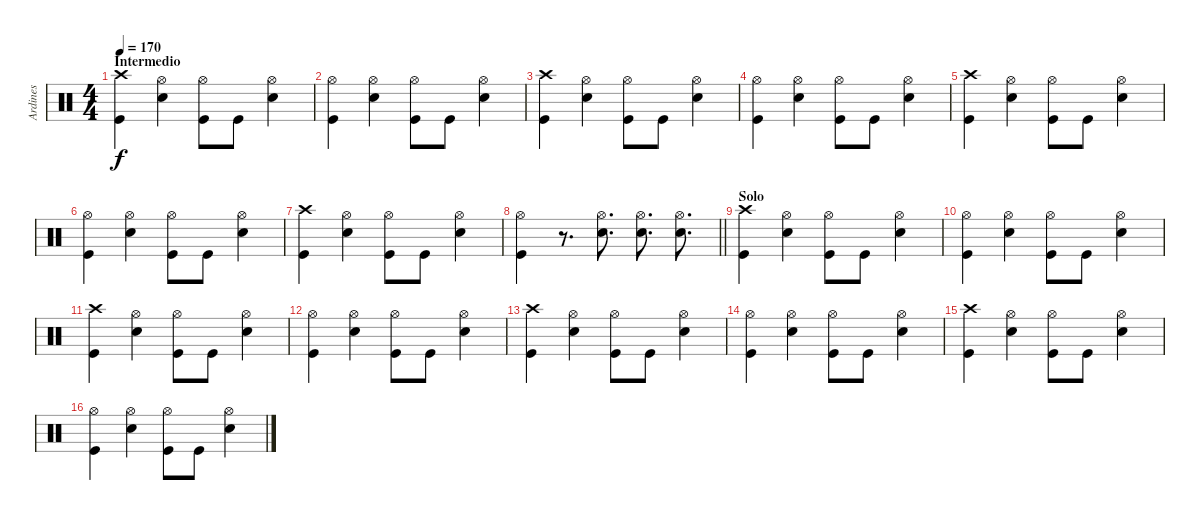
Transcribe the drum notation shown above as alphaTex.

\track ("Ardines" "Ardines") {instrument percussion}
\staff {score}
\articulation defaults
\ts (4 4)
\section ("" "Intermedio")
\tempo 170
\clef neutral
\ks c
("Kick (hit)" "Crash high (hit)").4{dy f} ("Snare (hit) 2" "Hi-Hat (open)").4 ("Kick (hit)" "Hi-Hat (open)").8 "Kick (hit)".8 ("Snare (hit) 2" "Hi-Hat (open)").4 |
("Kick (hit)" "Hi-Hat (open)").4 ("Snare (hit) 2" "Hi-Hat (open)").4 ("Kick (hit)" "Hi-Hat (open)").8 "Kick (hit)".8 ("Snare (hit) 2" "Hi-Hat (open)").4 |
("Kick (hit)" "Crash high (hit)").4 ("Snare (hit) 2" "Hi-Hat (open)").4 ("Kick (hit)" "Hi-Hat (open)").8 "Kick (hit)".8 ("Snare (hit) 2" "Hi-Hat (open)").4 |
("Kick (hit)" "Hi-Hat (open)").4 ("Snare (hit) 2" "Hi-Hat (open)").4 ("Kick (hit)" "Hi-Hat (open)").8 "Kick (hit)".8 ("Snare (hit) 2" "Hi-Hat (open)").4 |
("Kick (hit)" "Crash high (hit)").4 ("Snare (hit) 2" "Hi-Hat (open)").4 ("Kick (hit)" "Hi-Hat (open)").8 "Kick (hit)".8 ("Snare (hit) 2" "Hi-Hat (open)").4 |
("Kick (hit)" "Hi-Hat (open)").4 ("Snare (hit) 2" "Hi-Hat (open)").4 ("Kick (hit)" "Hi-Hat (open)").8 "Kick (hit)".8 ("Snare (hit) 2" "Hi-Hat (open)").4 |
("Kick (hit)" "Crash high (hit)").4 ("Snare (hit) 2" "Hi-Hat (open)").4 ("Kick (hit)" "Hi-Hat (open)").8 "Kick (hit)".8 ("Snare (hit) 2" "Hi-Hat (open)").4 |
\barLineRight lightlight
("Kick (hit)" "Hi-Hat (open)").4 r.8{d} ("Hi-Hat (open)" "Snare (hit) 2").8{d} ("Hi-Hat (open)" "Snare (hit) 2").8{d} ("Hi-Hat (open)" "Snare (hit) 2").8{d} |
\section ("" "Solo")
("Kick (hit)" "Crash high (hit)").4 ("Snare (hit) 2" "Hi-Hat (open)").4 ("Kick (hit)" "Hi-Hat (open)").8 "Kick (hit)".8 ("Snare (hit) 2" "Hi-Hat (open)").4 |
("Kick (hit)" "Hi-Hat (open)").4 ("Snare (hit) 2" "Hi-Hat (open)").4 ("Kick (hit)" "Hi-Hat (open)").8 "Kick (hit)".8 ("Snare (hit) 2" "Hi-Hat (open)").4 |
("Kick (hit)" "Crash high (hit)").4 ("Snare (hit) 2" "Hi-Hat (open)").4 ("Kick (hit)" "Hi-Hat (open)").8 "Kick (hit)".8 ("Snare (hit) 2" "Hi-Hat (open)").4 |
("Kick (hit)" "Hi-Hat (open)").4 ("Snare (hit) 2" "Hi-Hat (open)").4 ("Kick (hit)" "Hi-Hat (open)").8 "Kick (hit)".8 ("Snare (hit) 2" "Hi-Hat (open)").4 |
("Kick (hit)" "Crash high (hit)").4 ("Snare (hit) 2" "Hi-Hat (open)").4 ("Kick (hit)" "Hi-Hat (open)").8 "Kick (hit)".8 ("Snare (hit) 2" "Hi-Hat (open)").4 |
("Kick (hit)" "Hi-Hat (open)").4 ("Snare (hit) 2" "Hi-Hat (open)").4 ("Kick (hit)" "Hi-Hat (open)").8 "Kick (hit)".8 ("Snare (hit) 2" "Hi-Hat (open)").4 |
("Kick (hit)" "Crash high (hit)").4 ("Snare (hit) 2" "Hi-Hat (open)").4 ("Kick (hit)" "Hi-Hat (open)").8 "Kick (hit)".8 ("Snare (hit) 2" "Hi-Hat (open)").4 |
("Kick (hit)" "Hi-Hat (open)").4 ("Snare (hit) 2" "Hi-Hat (open)").4 ("Kick (hit)" "Hi-Hat (open)").8 "Kick (hit)".8 ("Snare (hit) 2" "Hi-Hat (open)").4
